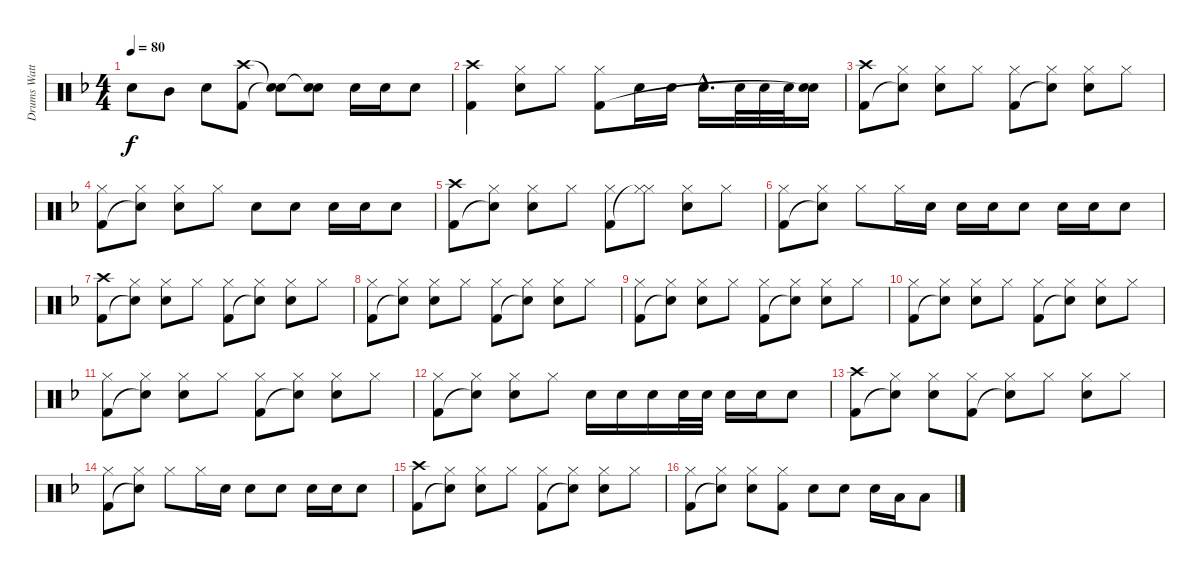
\track ("Drums Watts" "Drums Watt") {instrument percussion}
\staff {score}
\articulation defaults
\ts (4 4)
\tempo 80
\clef neutral
\ks f "Snare (hit) 2".8{dy f} "Mid Tom (hit)".8 "Snare (hit) 2".8
("Crash high (hit)" "Kick (hit) 2").8 ("Snare (hit)"{t} "Snare (hit)"{t}).8 ("Snare (hit) 2" "Snare (hit)"{t}).8 "Snare (hit) 2".16 "Snare (hit) 2".16 "Snare (hit) 2".8 |
("Crash high (hit)" "Kick (hit) 2").4 ("Hi-Hat (closed)" "Snare (hit) 2").8 "Hi-Hat (closed)".8 ("Hi-Hat (closed)" "Kick (hit) 2").8 "Snare (hit) 2".16 "Snare (hit) 2".16 "Snare (hit) 2"{hac}.16{d} "Snare (hit) 2".32 "Snare (hit) 2".32 "Snare (hit) 2".32 ("Snare (hit) 2" "Snare (hit)"{t}).16 |
("Crash high (hit)" "Kick (hit) 2").8 ("Hi-Hat (closed)" "Snare (hit)"{t}).8 ("Hi-Hat (closed)" "Snare (hit) 2").8 "Hi-Hat (closed)".8 ("Hi-Hat (closed)" "Kick (hit) 2").8 ("Hi-Hat (closed)" "Snare (hit)"{t}).8 ("Hi-Hat (closed)" "Snare (hit) 2").8 "Hi-Hat (closed)".8 |
("Hi-Hat (closed)" "Kick (hit) 2").8 ("Hi-Hat (closed)" "Snare (hit)"{t}).8 ("Hi-Hat (closed)" "Snare (hit) 2").8 "Hi-Hat (closed)".8 "Snare (hit) 2".8 "Snare (hit) 2".8 "Snare (hit) 2".16 "Snare (hit) 2".16 "Snare (hit) 2".8 |
("Crash high (hit)" "Kick (hit) 2").8 ("Hi-Hat (closed)" "Snare (hit)"{t}).8 ("Hi-Hat (closed)" "Snare (hit) 2").8 "Hi-Hat (closed)".8 ("Hi-Hat (closed)" "Kick (hit) 2").8 ("Hi-Hat (closed)" "Hi-Hat (closed)"{t}).8 ("Hi-Hat (closed)" "Snare (hit) 2").8 "Hi-Hat (closed)".8 |
("Hi-Hat (closed)" "Kick (hit) 2").8 ("Hi-Hat (closed)" "Snare (hit)"{t}).8 "Hi-Hat (closed)".8 "Hi-Hat (closed)".16 "Snare (hit) 2".16 "Snare (hit) 2".16 "Snare (hit) 2".16 "Snare (hit) 2".8 "Snare (hit) 2".16 "Snare (hit) 2".16 "Snare (hit) 2".8 |
("Crash high (hit)" "Kick (hit) 2").8 ("Hi-Hat (closed)" "Snare (hit)"{t}).8 ("Hi-Hat (closed)" "Snare (hit) 2").8 "Hi-Hat (closed)".8 ("Hi-Hat (closed)" "Kick (hit) 2").8 ("Hi-Hat (closed)" "Snare (hit)"{t}).8 ("Hi-Hat (closed)" "Snare (hit) 2").8 "Hi-Hat (closed)".8 |
("Hi-Hat (closed)" "Kick (hit) 2").8 ("Hi-Hat (closed)" "Snare (hit)"{t}).8 ("Hi-Hat (closed)" "Snare (hit) 2").8 "Hi-Hat (closed)".8 ("Hi-Hat (closed)" "Kick (hit) 2").8 ("Hi-Hat (closed)" "Snare (hit)"{t}).8 ("Hi-Hat (closed)" "Snare (hit) 2").8 "Hi-Hat (closed)".8 |
("Hi-Hat (closed)" "Kick (hit) 2").8 ("Hi-Hat (closed)" "Snare (hit)"{t}).8 ("Hi-Hat (closed)" "Snare (hit) 2").8 "Hi-Hat (closed)".8 ("Hi-Hat (closed)" "Kick (hit) 2").8 ("Hi-Hat (closed)" "Snare (hit)"{t}).8 ("Hi-Hat (closed)" "Snare (hit) 2").8 "Hi-Hat (closed)".8 |
("Hi-Hat (closed)" "Kick (hit) 2").8 ("Hi-Hat (closed)" "Snare (hit)"{t}).8 ("Hi-Hat (closed)" "Snare (hit) 2").8 "Hi-Hat (closed)".8 ("Hi-Hat (closed)" "Kick (hit) 2").8 ("Hi-Hat (closed)" "Snare (hit)"{t}).8 ("Hi-Hat (closed)" "Snare (hit) 2").8 "Hi-Hat (closed)".8 |
("Hi-Hat (closed)" "Kick (hit) 2").8 ("Hi-Hat (closed)" "Snare (hit)"{t}).8 ("Hi-Hat (closed)" "Snare (hit) 2").8 "Hi-Hat (closed)".8 ("Hi-Hat (closed)" "Kick (hit) 2").8 ("Hi-Hat (closed)" "Snare (hit)"{t}).8 ("Hi-Hat (closed)" "Snare (hit) 2").8 "Hi-Hat (closed)".8 |
("Hi-Hat (closed)" "Kick (hit) 2").8 ("Hi-Hat (closed)" "Snare (hit)"{t}).8 ("Hi-Hat (closed)" "Snare (hit) 2").8 "Hi-Hat (closed)".8 "Snare (hit) 2".16 "Snare (hit) 2".16 "Snare (hit) 2".16 "Snare (hit) 2".32 "Snare (hit) 2".32 "Snare (hit) 2".16 "Snare (hit) 2".16 "Snare (hit) 2".8 |
("Crash high (hit)" "Kick (hit) 2").8 ("Hi-Hat (closed)" "Snare (hit)"{t}).8 ("Hi-Hat (closed)" "Snare (hit) 2").8 ("Hi-Hat (closed)" "Kick (hit) 2").8 ("Hi-Hat (closed)" "Snare (hit)"{t}).8 "Hi-Hat (closed)".8 ("Hi-Hat (closed)" "Snare (hit) 2").8 "Hi-Hat (closed)".8 |
("Hi-Hat (closed)" "Kick (hit) 2").8 ("Hi-Hat (closed)" "Snare (hit)"{t}).8 "Hi-Hat (closed)".8 "Hi-Hat (closed)".16 "Snare (hit) 2".16 "Snare (hit) 2".8 "Snare (hit) 2".8 "Snare (hit) 2".16 "Snare (hit) 2".16 "Snare (hit) 2".8 |
("Crash high (hit)" "Kick (hit) 2").8 ("Hi-Hat (closed)" "Snare (hit)"{t}).8 ("Hi-Hat (closed)" "Snare (hit) 2").8 "Hi-Hat (closed)".8 ("Hi-Hat (closed)" "Kick (hit) 2").8 ("Hi-Hat (closed)" "Snare (hit)"{t}).8 ("Hi-Hat (closed)" "Snare (hit) 2").8 "Hi-Hat (closed)".8 |
("Hi-Hat (closed)" "Kick (hit) 2").8 ("Hi-Hat (closed)" "Snare (hit)"{t}).8 ("Hi-Hat (closed)" "Snare (hit) 2").8 ("Hi-Hat (closed)" "Kick (hit) 2").8 "Snare (hit) 2".8 "Snare (hit) 2".8 "Snare (hit) 2".16 "Low Tom (hit)".16 "Low Tom (hit)".8
